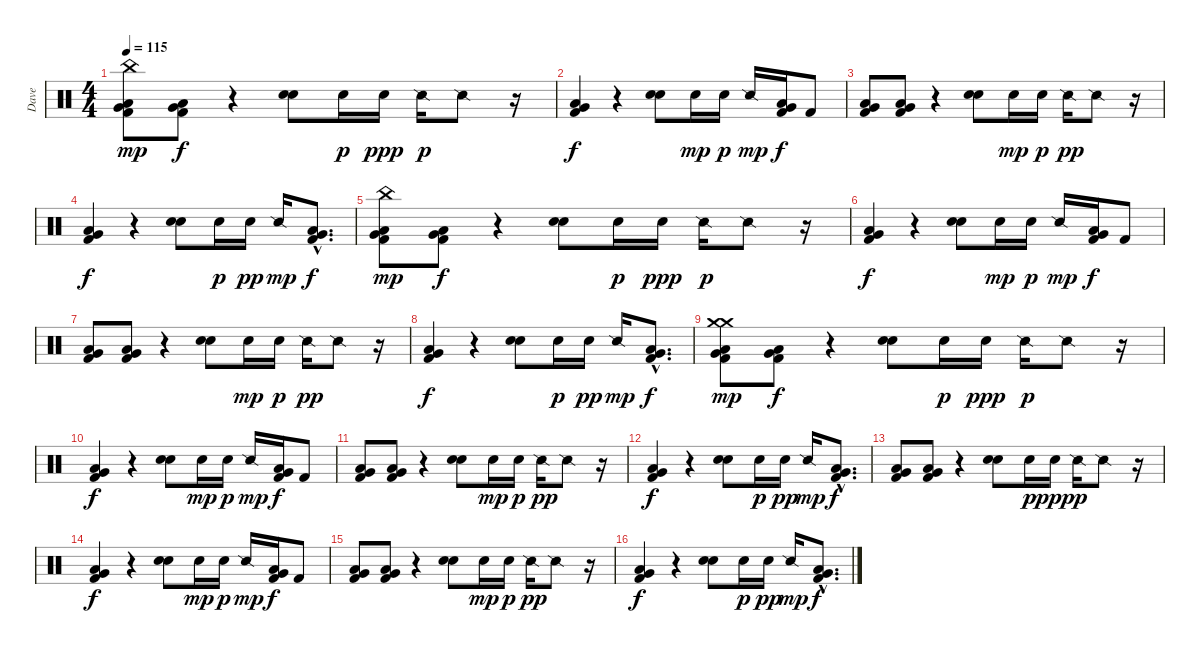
\track ("Dave" "Dave") {instrument percussion}
\staff {score}
\articulation defaults
\ts (4 4)
\tempo 115
\clef neutral
\ks c
("China (hit)" "Very Low Tom (hit)" "Low Floor Tom (hit)" "Kick (hit) 2").8{dy mp} ("Very Low Tom (hit)" "Low Floor Tom (hit)" "Kick (hit) 2").8{dy f} r.4 ("Hand Clap (hit)" "Electric Snare (hit)").8 "Hand Clap (hit)".16{dy p} "Hand Clap (hit)".16{dy ppp} "Snare (side stick) 2".16{dy p} "Snare (side stick) 2".8 r.16 |
("Very Low Tom (hit)" "Low Floor Tom (hit)" "Kick (hit) 2").4{dy f} r.4 ("Hand Clap (hit)" "Electric Snare (hit)").8 "Hand Clap (hit)".16{dy mp} "Hand Clap (hit)".16{dy p} "Snare (side stick) 2".16{dy mp} ("Very Low Tom (hit)" "Low Floor Tom (hit)" "Kick (hit) 2").16{dy f} "Kick (hit) 2".8 |
("Very Low Tom (hit)" "Low Floor Tom (hit)" "Kick (hit) 2").8 ("Very Low Tom (hit)" "Low Floor Tom (hit)" "Kick (hit) 2").8 r.4 ("Hand Clap (hit)" "Electric Snare (hit)").8 "Hand Clap (hit)".16{dy mp} "Hand Clap (hit)".16{dy p} "Snare (side stick) 2".16{dy pp} "Snare (side stick) 2".8 r.16 |
("Very Low Tom (hit)" "Low Floor Tom (hit)" "Kick (hit) 2").4{dy f} r.4 ("Hand Clap (hit)" "Electric Snare (hit)").8 "Hand Clap (hit)".16{dy p} "Hand Clap (hit)".16{dy pp} "Snare (side stick) 2".16{dy mp} ("Very Low Tom (hit)"{hac} "Low Floor Tom (hit)"{hac} "Kick (hit) 2"{hac}).8{d dy f} |
("China (hit)" "Very Low Tom (hit)" "Low Floor Tom (hit)" "Kick (hit) 2").8{dy mp} ("Very Low Tom (hit)" "Low Floor Tom (hit)" "Kick (hit) 2").8{dy f} r.4 ("Hand Clap (hit)" "Electric Snare (hit)").8 "Hand Clap (hit)".16{dy p} "Hand Clap (hit)".16{dy ppp} "Snare (side stick) 2".16{dy p} "Snare (side stick) 2".8 r.16 |
("Very Low Tom (hit)" "Low Floor Tom (hit)" "Kick (hit) 2").4{dy f} r.4 ("Hand Clap (hit)" "Electric Snare (hit)").8 "Hand Clap (hit)".16{dy mp} "Hand Clap (hit)".16{dy p} "Snare (side stick) 2".16{dy mp} ("Very Low Tom (hit)" "Low Floor Tom (hit)" "Kick (hit) 2").16{dy f} "Kick (hit) 2".8 |
("Very Low Tom (hit)" "Low Floor Tom (hit)" "Kick (hit) 2").8 ("Very Low Tom (hit)" "Low Floor Tom (hit)" "Kick (hit) 2").8 r.4 ("Hand Clap (hit)" "Electric Snare (hit)").8 "Hand Clap (hit)".16{dy mp} "Hand Clap (hit)".16{dy p} "Snare (side stick) 2".16{dy pp} "Snare (side stick) 2".8 r.16 |
("Very Low Tom (hit)" "Low Floor Tom (hit)" "Kick (hit) 2").4{dy f} r.4 ("Hand Clap (hit)" "Electric Snare (hit)").8 "Hand Clap (hit)".16{dy p} "Hand Clap (hit)".16{dy pp} "Snare (side stick) 2".16{dy mp} ("Very Low Tom (hit)"{hac} "Low Floor Tom (hit)"{hac} "Kick (hit) 2"{hac}).8{d dy f} |
("Crash medium (hit)" "Crash medium (hit)" "Very Low Tom (hit)" "Low Floor Tom (hit)" "Kick (hit) 2").8{dy mp} ("Very Low Tom (hit)" "Low Floor Tom (hit)" "Kick (hit) 2").8{dy f} r.4 ("Hand Clap (hit)" "Electric Snare (hit)").8 "Hand Clap (hit)".16{dy p} "Hand Clap (hit)".16{dy ppp} "Snare (side stick) 2".16{dy p} "Snare (side stick) 2".8 r.16 |
("Very Low Tom (hit)" "Low Floor Tom (hit)" "Kick (hit) 2").4{dy f} r.4 ("Hand Clap (hit)" "Electric Snare (hit)").8 "Hand Clap (hit)".16{dy mp} "Hand Clap (hit)".16{dy p} "Snare (side stick) 2".16{dy mp} ("Very Low Tom (hit)" "Low Floor Tom (hit)" "Kick (hit) 2").16{dy f} "Kick (hit) 2".8 |
("Very Low Tom (hit)" "Low Floor Tom (hit)" "Kick (hit) 2").8 ("Very Low Tom (hit)" "Low Floor Tom (hit)" "Kick (hit) 2").8 r.4 ("Hand Clap (hit)" "Electric Snare (hit)").8 "Hand Clap (hit)".16{dy mp} "Hand Clap (hit)".16{dy p} "Snare (side stick) 2".16{dy pp} "Snare (side stick) 2".8 r.16 |
("Very Low Tom (hit)" "Low Floor Tom (hit)" "Kick (hit) 2").4{dy f} r.4 ("Hand Clap (hit)" "Electric Snare (hit)").8 "Hand Clap (hit)".16{dy p} "Hand Clap (hit)".16{dy pp} "Snare (side stick) 2".16{dy mp} ("Very Low Tom (hit)"{hac} "Low Floor Tom (hit)"{hac} "Kick (hit) 2"{hac}).8{d dy f} |
("Very Low Tom (hit)" "Low Floor Tom (hit)" "Kick (hit) 2").8 ("Very Low Tom (hit)" "Low Floor Tom (hit)" "Kick (hit) 2").8 r.4 ("Hand Clap (hit)" "Electric Snare (hit)").8 "Hand Clap (hit)".16{dy p} "Hand Clap (hit)".16{dy ppp} "Snare (side stick) 2".16{dy p} "Snare (side stick) 2".8 r.16 |
("Very Low Tom (hit)" "Low Floor Tom (hit)" "Kick (hit) 2").4{dy f} r.4 ("Hand Clap (hit)" "Electric Snare (hit)").8 "Hand Clap (hit)".16{dy mp} "Hand Clap (hit)".16{dy p} "Snare (side stick) 2".16{dy mp} ("Very Low Tom (hit)" "Low Floor Tom (hit)" "Kick (hit) 2").16{dy f} "Kick (hit) 2".8 |
("Very Low Tom (hit)" "Low Floor Tom (hit)" "Kick (hit) 2").8 ("Very Low Tom (hit)" "Low Floor Tom (hit)" "Kick (hit) 2").8 r.4 ("Hand Clap (hit)" "Electric Snare (hit)").8 "Hand Clap (hit)".16{dy mp} "Hand Clap (hit)".16{dy p} "Snare (side stick) 2".16{dy pp} "Snare (side stick) 2".8 r.16 |
("Very Low Tom (hit)" "Low Floor Tom (hit)" "Kick (hit) 2").4{dy f} r.4 ("Hand Clap (hit)" "Electric Snare (hit)").8 "Hand Clap (hit)".16{dy p} "Hand Clap (hit)".16{dy pp} "Snare (side stick) 2".16{dy mp} ("Very Low Tom (hit)"{hac} "Low Floor Tom (hit)"{hac} "Kick (hit) 2"{hac}).8{d dy f}
